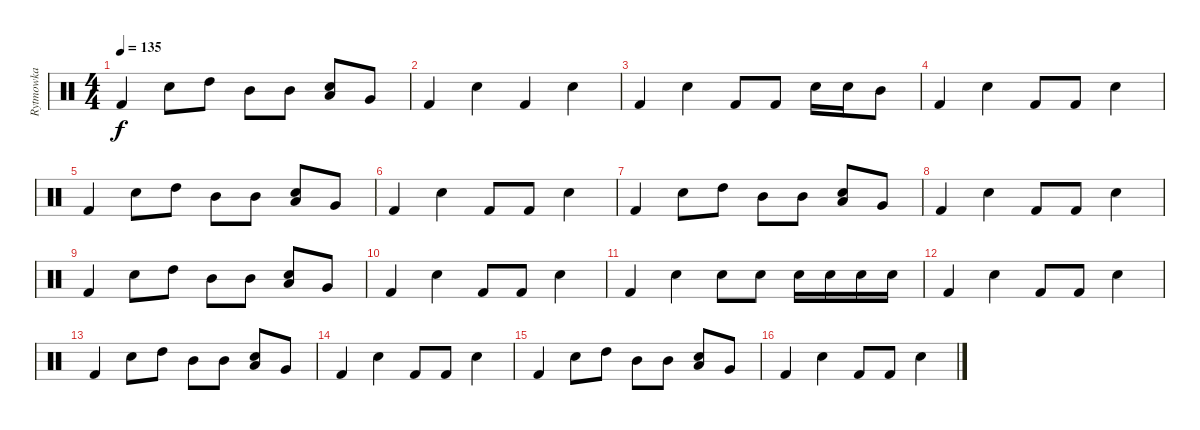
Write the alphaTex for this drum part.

\track ("Rytmowka" "Rytmowka") {instrument percussion}
\staff {score}
\articulation defaults
\ts (4 4)
\tempo 135
\clef neutral
\ks c "Kick (hit) 2".4{dy f} "Snare (hit) 2".8 "High Tom (hit)".8 "Mid Tom (hit)".8 "Mid Tom (hit)".8
("Snare (hit) 2" "Low Tom (hit)").8 "Very Low Tom (hit)".8 |
"Kick (hit) 2".4 "Snare (hit) 2".4 "Kick (hit) 2".4 "Snare (hit) 2".4 |
"Kick (hit) 2".4 "Snare (hit) 2".4 "Kick (hit) 2".8 "Kick (hit) 2".8 "Snare (hit) 2".16 "Snare (hit) 2".16 "Mid Tom (hit)".8 |
"Kick (hit) 2".4 "Snare (hit) 2".4 "Kick (hit) 2".8 "Kick (hit) 2".8 "Snare (hit) 2".4 |
"Kick (hit) 2".4 "Snare (hit) 2".8 "High Tom (hit)".8 "Mid Tom (hit)".8 "Mid Tom (hit)".8 ("Snare (hit) 2" "Low Tom (hit)").8 "Very Low Tom (hit)".8 |
"Kick (hit) 2".4 "Snare (hit) 2".4 "Kick (hit) 2".8 "Kick (hit) 2".8 "Snare (hit) 2".4 |
"Kick (hit) 2".4 "Snare (hit) 2".8 "High Tom (hit)".8 "Mid Tom (hit)".8 "Mid Tom (hit)".8 ("Snare (hit) 2" "Low Tom (hit)").8 "Very Low Tom (hit)".8 |
"Kick (hit) 2".4 "Snare (hit) 2".4 "Kick (hit) 2".8 "Kick (hit) 2".8 "Snare (hit) 2".4 |
"Kick (hit) 2".4 "Snare (hit) 2".8 "High Tom (hit)".8 "Mid Tom (hit)".8 "Mid Tom (hit)".8 ("Snare (hit) 2" "Low Tom (hit)").8 "Very Low Tom (hit)".8 |
"Kick (hit) 2".4 "Snare (hit) 2".4 "Kick (hit) 2".8 "Kick (hit) 2".8 "Snare (hit) 2".4 |
"Kick (hit) 2".4 "Snare (hit) 2".4 "Snare (hit) 2".8 "Snare (hit) 2".8 "Snare (hit) 2".16 "Snare (hit) 2".16 "Snare (hit) 2".16 "Snare (hit) 2".16 |
"Kick (hit) 2".4 "Snare (hit) 2".4 "Kick (hit) 2".8 "Kick (hit) 2".8 "Snare (hit) 2".4 |
"Kick (hit) 2".4 "Snare (hit) 2".8 "High Tom (hit)".8 "Mid Tom (hit)".8 "Mid Tom (hit)".8 ("Snare (hit) 2" "Low Tom (hit)").8 "Very Low Tom (hit)".8 |
"Kick (hit) 2".4 "Snare (hit) 2".4 "Kick (hit) 2".8 "Kick (hit) 2".8 "Snare (hit) 2".4 |
"Kick (hit) 2".4 "Snare (hit) 2".8 "High Tom (hit)".8 "Mid Tom (hit)".8 "Mid Tom (hit)".8 ("Snare (hit) 2" "Low Tom (hit)").8 "Very Low Tom (hit)".8 |
"Kick (hit) 2".4 "Snare (hit) 2".4 "Kick (hit) 2".8 "Kick (hit) 2".8 "Snare (hit) 2".4
